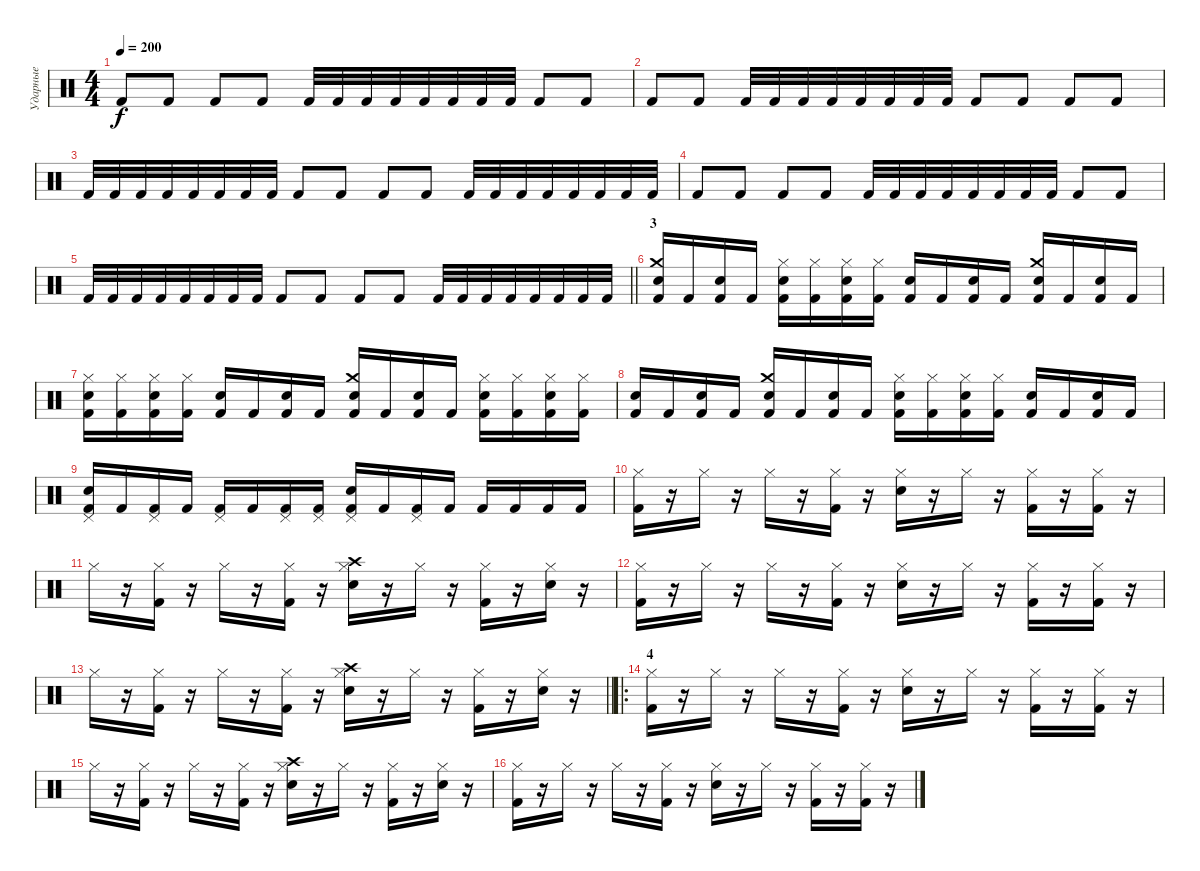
\track ("Ударные" "Ударные") {instrument percussion}
\staff {score}
\articulation defaults
\ts (4 4)
\tempo 200
\clef neutral
\ks c "Kick (hit) 2".8{dy f} "Kick (hit) 2".8 "Kick (hit) 2".8 "Kick (hit) 2".8 "Kick (hit) 2".32 "Kick (hit) 2".32 "Kick (hit) 2".32 "Kick (hit) 2".32 "Kick (hit) 2".32 "Kick (hit) 2".32 "Kick (hit) 2".32 "Kick (hit) 2".32 "Kick (hit) 2".8 "Kick (hit) 2".8
|
"Kick (hit) 2".8 "Kick (hit) 2".8 "Kick (hit) 2".32 "Kick (hit) 2".32 "Kick (hit) 2".32 "Kick (hit) 2".32 "Kick (hit) 2".32 "Kick (hit) 2".32 "Kick (hit) 2".32 "Kick (hit) 2".32 "Kick (hit) 2".8 "Kick (hit) 2".8 "Kick (hit) 2".8 "Kick (hit) 2".8 |
"Kick (hit) 2".32 "Kick (hit) 2".32 "Kick (hit) 2".32 "Kick (hit) 2".32 "Kick (hit) 2".32 "Kick (hit) 2".32 "Kick (hit) 2".32 "Kick (hit) 2".32 "Kick (hit) 2".8 "Kick (hit) 2".8 "Kick (hit) 2".8 "Kick (hit) 2".8 "Kick (hit) 2".32 "Kick (hit) 2".32 "Kick (hit) 2".32 "Kick (hit) 2".32 "Kick (hit) 2".32 "Kick (hit) 2".32 "Kick (hit) 2".32 "Kick (hit) 2".32 |
"Kick (hit) 2".8 "Kick (hit) 2".8 "Kick (hit) 2".8 "Kick (hit) 2".8 "Kick (hit) 2".32 "Kick (hit) 2".32 "Kick (hit) 2".32 "Kick (hit) 2".32 "Kick (hit) 2".32 "Kick (hit) 2".32 "Kick (hit) 2".32 "Kick (hit) 2".32 "Kick (hit) 2".8 "Kick (hit) 2".8 |
\barLineRight lightlight "Kick (hit) 2".32 "Kick (hit) 2".32 "Kick (hit) 2".32 "Kick (hit) 2".32 "Kick (hit) 2".32 "Kick (hit) 2".32 "Kick (hit) 2".32 "Kick (hit) 2".32 "Kick (hit) 2".8 "Kick (hit) 2".8 "Kick (hit) 2".8 "Kick (hit) 2".8 "Kick (hit) 2".32 "Kick (hit) 2".32 "Kick (hit) 2".32 "Kick (hit) 2".32 "Kick (hit) 2".32 "Kick (hit) 2".32 "Kick (hit) 2".32 "Kick (hit) 2".32
|
\section ("" "3")
("Crash medium (hit)" "Electric Snare (hit)" "Kick (hit) 2").16 "Kick (hit) 2".16 ("Electric Snare (hit)" "Kick (hit) 2").16 "Kick (hit) 2".16 ("Hi-Hat (closed)" "Electric Snare (hit)" "Kick (hit) 2").16 ("Hi-Hat (closed)" "Kick (hit) 2").16 ("Hi-Hat (closed)" "Electric Snare (hit)" "Kick (hit) 2").16 ("Hi-Hat (closed)" "Kick (hit) 2").16 ("Electric Snare (hit)" "Kick (hit) 2").16 "Kick (hit) 2".16 ("Electric Snare (hit)" "Kick (hit) 2").16 "Kick (hit) 2".16 ("Crash medium (hit)" "Electric Snare (hit)" "Kick (hit) 2").16 "Kick (hit) 2".16 ("Electric Snare (hit)" "Kick (hit) 2").16 "Kick (hit) 2".16 |
("Hi-Hat (closed)" "Electric Snare (hit)" "Kick (hit) 2").16 ("Hi-Hat (closed)" "Kick (hit) 2").16 ("Hi-Hat (closed)" "Electric Snare (hit)" "Kick (hit) 2").16 ("Hi-Hat (closed)" "Kick (hit) 2").16 ("Electric Snare (hit)" "Kick (hit) 2").16 "Kick (hit) 2".16 ("Electric Snare (hit)" "Kick (hit) 2").16 "Kick (hit) 2".16 ("Crash medium (hit)" "Electric Snare (hit)" "Kick (hit) 2").16 "Kick (hit) 2".16 ("Electric Snare (hit)" "Kick (hit) 2").16 "Kick (hit) 2".16 ("Hi-Hat (closed)" "Electric Snare (hit)" "Kick (hit) 2").16 ("Hi-Hat (closed)" "Kick (hit) 2").16 ("Hi-Hat (closed)" "Electric Snare (hit)" "Kick (hit) 2").16 ("Hi-Hat (closed)" "Kick (hit) 2").16 |
("Electric Snare (hit)" "Kick (hit) 2").16 "Kick (hit) 2".16 ("Electric Snare (hit)" "Kick (hit) 2").16 "Kick (hit) 2".16 ("Crash medium (hit)" "Electric Snare (hit)" "Kick (hit) 2").16 "Kick (hit) 2".16 ("Electric Snare (hit)" "Kick (hit) 2").16 "Kick (hit) 2".16 ("Hi-Hat (closed)" "Electric Snare (hit)" "Kick (hit) 2").16 ("Hi-Hat (closed)" "Kick (hit) 2").16 ("Hi-Hat (closed)" "Electric Snare (hit)" "Kick (hit) 2").16 ("Hi-Hat (closed)" "Kick (hit) 2").16 ("Electric Snare (hit)" "Kick (hit) 2").16 "Kick (hit) 2".16 ("Electric Snare (hit)" "Kick (hit) 2").16 "Kick (hit) 2".16 |
("Pedal Hi-Hat (hit)" "Electric Snare (hit)" "Kick (hit) 2").16 "Kick (hit) 2".16 ("Pedal Hi-Hat (hit)" "Kick (hit) 2").16 "Kick (hit) 2".16 ("Pedal Hi-Hat (hit)" "Kick (hit) 2").16 "Kick (hit) 2".16 ("Pedal Hi-Hat (hit)" "Kick (hit) 2").16 ("Pedal Hi-Hat (hit)" "Kick (hit) 2").16 ("Pedal Hi-Hat (hit)" "Electric Snare (hit)" "Kick (hit) 2").16 "Kick (hit) 2".16 ("Pedal Hi-Hat (hit)" "Kick (hit) 2").16 "Kick (hit) 2".16 "Kick (hit) 2".16 "Kick (hit) 2".16 "Kick (hit) 2".16 "Kick (hit) 2".16 |
("Hi-Hat (closed)" "Kick (hit) 2").16 r.16 "Hi-Hat (closed)".16 r.16 "Hi-Hat (closed)".16 r.16 ("Hi-Hat (closed)" "Kick (hit) 2").16 r.16 ("Hi-Hat (closed)" "Electric Snare (hit)").16 r.16 "Hi-Hat (closed)".16 r.16 ("Hi-Hat (closed)" "Kick (hit) 2").16 r.16 ("Hi-Hat (closed)" "Kick (hit) 2").16 r.16 |
"Hi-Hat (closed)".16 r.16 ("Hi-Hat (closed)" "Kick (hit) 2").16 r.16 "Hi-Hat (closed)".16 r.16 ("Hi-Hat (closed)" "Kick (hit) 2").16 r.16 ("Hi-Hat (closed)" "Crash high (hit)" "Electric Snare (hit)").16 r.16 "Hi-Hat (closed)".16 r.16 ("Hi-Hat (closed)" "Kick (hit) 2").16 r.16 ("Hi-Hat (closed)" "Electric Snare (hit)").16 r.16 |
("Hi-Hat (closed)" "Kick (hit) 2").16 r.16 "Hi-Hat (closed)".16 r.16 "Hi-Hat (closed)".16 r.16 ("Hi-Hat (closed)" "Kick (hit) 2").16 r.16 ("Hi-Hat (closed)" "Electric Snare (hit)").16 r.16 "Hi-Hat (closed)".16 r.16 ("Hi-Hat (closed)" "Kick (hit) 2").16 r.16 ("Hi-Hat (closed)" "Kick (hit) 2").16 r.16 |
\barLineRight lightlight "Hi-Hat (closed)".16
r.16 ("Hi-Hat (closed)" "Kick (hit) 2").16 r.16 "Hi-Hat (closed)".16 r.16 ("Hi-Hat (closed)" "Kick (hit) 2").16 r.16 ("Hi-Hat (closed)" "Crash high (hit)" "Electric Snare (hit)").16 r.16 "Hi-Hat (closed)".16 r.16 ("Hi-Hat (closed)" "Kick (hit) 2").16 r.16 ("Hi-Hat (closed)" "Electric Snare (hit)").16 r.16 |
\ro
\section ("" "4")
("Hi-Hat (closed)" "Kick (hit) 2").16 r.16 "Hi-Hat (closed)".16 r.16 "Hi-Hat (closed)".16 r.16 ("Hi-Hat (closed)" "Kick (hit) 2").16 r.16 ("Hi-Hat (closed)" "Electric Snare (hit)").16 r.16 "Hi-Hat (closed)".16 r.16 ("Hi-Hat (closed)" "Kick (hit) 2").16 r.16 ("Hi-Hat (closed)" "Kick (hit) 2").16 r.16 |
"Hi-Hat (closed)".16 r.16 ("Hi-Hat (closed)" "Kick (hit) 2").16 r.16 "Hi-Hat (closed)".16 r.16 ("Hi-Hat (closed)" "Kick (hit) 2").16 r.16 ("Hi-Hat (closed)" "Crash high (hit)" "Electric Snare (hit)").16 r.16 "Hi-Hat (closed)".16 r.16 ("Hi-Hat (closed)" "Kick (hit) 2").16 r.16 ("Hi-Hat (closed)" "Electric Snare (hit)").16 r.16 |
("Hi-Hat (closed)" "Kick (hit) 2").16 r.16 "Hi-Hat (closed)".16 r.16 "Hi-Hat (closed)".16 r.16 ("Hi-Hat (closed)" "Kick (hit) 2").16 r.16 ("Hi-Hat (closed)" "Electric Snare (hit)").16 r.16 "Hi-Hat (closed)".16 r.16 ("Hi-Hat (closed)" "Kick (hit) 2").16 r.16 ("Hi-Hat (closed)" "Kick (hit) 2").16 r.16
